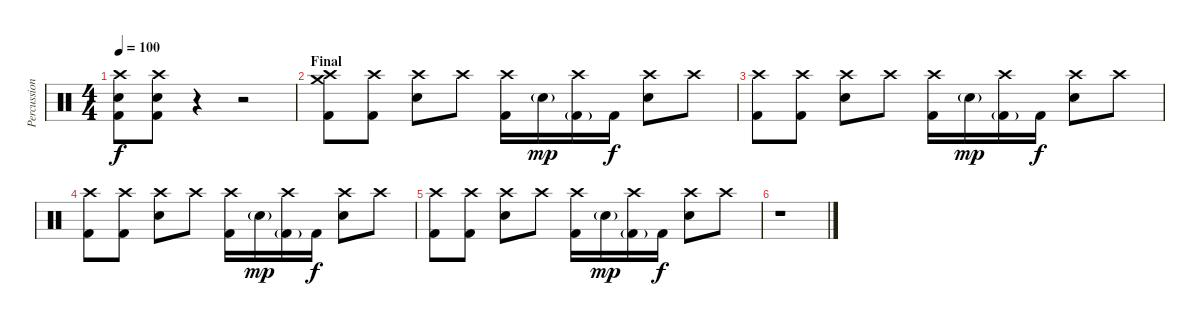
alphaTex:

\track ("Percussions" "Percussion") {instrument percussion}
\staff {score}
\articulation defaults
\ts (4 4)
\tempo 100
\clef neutral
\ks c
("Crash high (hit)" "Electric Snare (hit)" "Kick (hit) 2").8{dy f} ("Crash high (hit)" "Electric Snare (hit)" "Kick (hit) 2").8 r.4 r.2 |
\section ("" "Final")
("Crash high (hit)" "Crash medium (hit)" "Kick (hit) 2").8 ("Crash high (hit)" "Kick (hit) 2").8 ("Crash high (hit)" "Electric Snare (hit)").8 "Crash high (hit)".8 ("Crash high (hit)" "Kick (hit) 2").16 "Electric Snare (hit)"{g}.16{dy mp} ("Crash high (hit)" "Kick (hit) 2"{g}).16 "Kick (hit) 2".16{dy f} ("Crash high (hit)" "Electric Snare (hit)").8 "Crash high (hit)".8 |
("Crash high (hit)" "Kick (hit) 2").8 ("Crash high (hit)" "Kick (hit) 2").8 ("Crash high (hit)" "Electric Snare (hit)").8 "Crash high (hit)".8 ("Crash high (hit)" "Kick (hit) 2").16 "Electric Snare (hit)"{g}.16{dy mp} ("Crash high (hit)" "Kick (hit) 2"{g}).16 "Kick (hit) 2".16{dy f} ("Crash high (hit)" "Electric Snare (hit)").8 "Crash high (hit)".8 |
("Crash high (hit)" "Kick (hit) 2").8 ("Crash high (hit)" "Kick (hit) 2").8 ("Crash high (hit)" "Electric Snare (hit)").8 "Crash high (hit)".8 ("Crash high (hit)" "Kick (hit) 2").16 "Electric Snare (hit)"{g}.16{dy mp} ("Crash high (hit)" "Kick (hit) 2"{g}).16 "Kick (hit) 2".16{dy f} ("Crash high (hit)" "Electric Snare (hit)").8 "Crash high (hit)".8 |
("Crash high (hit)" "Kick (hit) 2").8 ("Crash high (hit)" "Kick (hit) 2").8 ("Crash high (hit)" "Electric Snare (hit)").8 "Crash high (hit)".8 ("Crash high (hit)" "Kick (hit) 2").16 "Electric Snare (hit)"{g}.16{dy mp} ("Crash high (hit)" "Kick (hit) 2"{g}).16 "Kick (hit) 2".16{dy f} ("Crash high (hit)" "Electric Snare (hit)").8 "Crash high (hit)".8 |
r.1
